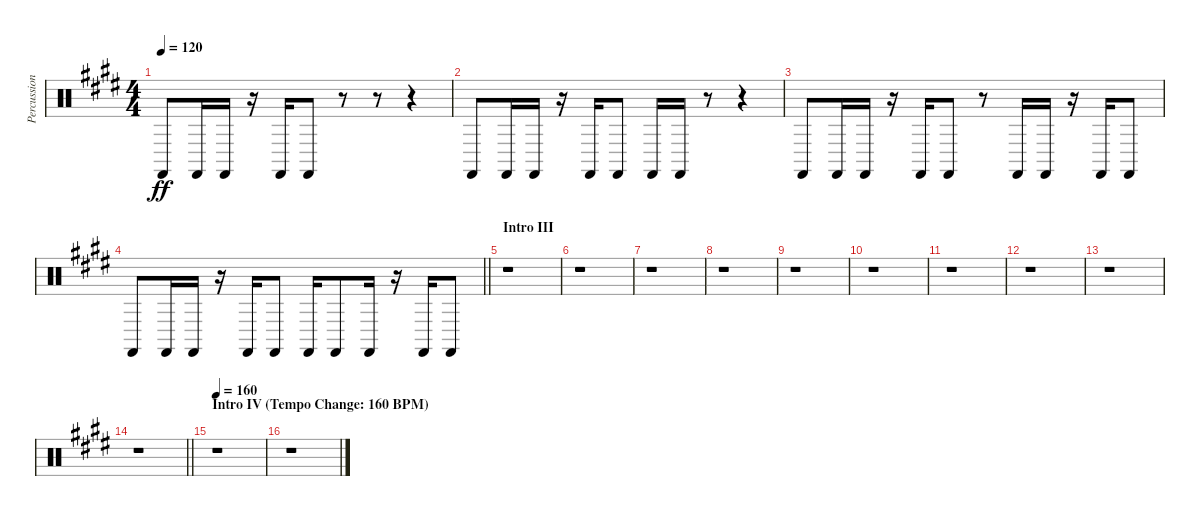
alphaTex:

\track ("Percussion V" "Percussion") {instrument percussion}
\staff {score}
\articulation defaults
\ts (4 4)
\tempo 120
\clef neutral
\ks e "Castanets (hit)".8{dy ff} "Castanets (hit)".16 "Castanets (hit)".16
r.16 "Castanets (hit)".16 "Castanets (hit)".8 r.8 r.8 r.4 |
"Castanets (hit)".8 "Castanets (hit)".16 "Castanets (hit)".16 r.16 "Castanets (hit)".16 "Castanets (hit)".8 "Castanets (hit)".16 "Castanets (hit)".16 r.8 r.4 |
"Castanets (hit)".8 "Castanets (hit)".16 "Castanets (hit)".16 r.16 "Castanets (hit)".16 "Castanets (hit)".8 r.8 "Castanets (hit)".16 "Castanets (hit)".16 r.16 "Castanets (hit)".16 "Castanets (hit)".8 |
\barLineRight lightlight "Castanets (hit)".8 "Castanets (hit)".16 "Castanets (hit)".16
r.16 "Castanets (hit)".16 "Castanets (hit)".8 "Castanets (hit)".16 "Castanets (hit)".8 "Castanets (hit)".16 r.16 "Castanets (hit)".16 "Castanets (hit)".8 |
\section ("" "Intro III")
r.1 |
r.1 |
r.1 |
r.1 |
r.1 |
r.1 |
r.1 |
r.1 |
r.1 |
\barLineRight lightlight
r.1 |
\section ("" "Intro IV (Tempo Change: 160 BPM)")
\tempo 160
r.1 |
r.1
